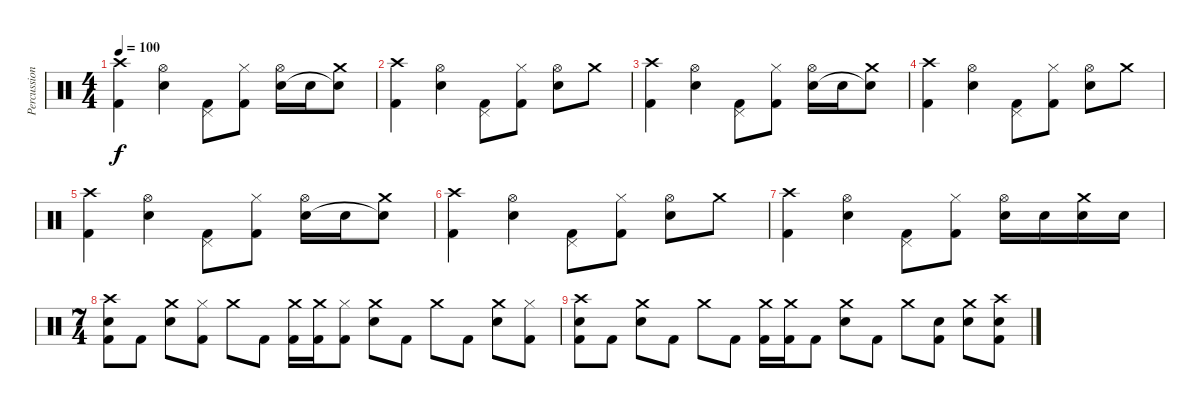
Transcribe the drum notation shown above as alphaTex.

\track ("Percussioni" "Percussion") {instrument percussion}
\staff {score}
\articulation defaults
\ts (4 4)
\tempo 100
\clef neutral
\ks c
("Crash high (hit)" "Kick (hit) 2").4{dy f} ("Hi-Hat (open)" "Snare (hit) 2").4 ("Pedal Hi-Hat (hit)" "Kick (hit) 2").8 ("Hi-Hat (closed)" "Kick (hit) 2").8 ("Hi-Hat (open)" "Snare (hit) 2").16 "Snare (hit) 2".16 ("Crash medium (hit)" "Snare (hit)"{t}).8 |
("Crash high (hit)" "Kick (hit) 2").4 ("Hi-Hat (open)" "Snare (hit) 2").4 ("Pedal Hi-Hat (hit)" "Kick (hit) 2").8 ("Hi-Hat (closed)" "Kick (hit) 2").8 ("Hi-Hat (open)" "Snare (hit) 2").8 "Crash medium (hit)".8 |
("Crash high (hit)" "Kick (hit) 2").4 ("Hi-Hat (open)" "Snare (hit) 2").4 ("Pedal Hi-Hat (hit)" "Kick (hit) 2").8 ("Hi-Hat (closed)" "Kick (hit) 2").8 ("Hi-Hat (open)" "Snare (hit) 2").16 "Snare (hit) 2".16 ("Crash medium (hit)" "Snare (hit)"{t}).8 |
("Crash high (hit)" "Kick (hit) 2").4 ("Hi-Hat (open)" "Snare (hit) 2").4 ("Pedal Hi-Hat (hit)" "Kick (hit) 2").8 ("Hi-Hat (closed)" "Kick (hit) 2").8 ("Hi-Hat (open)" "Snare (hit) 2").8 "Crash medium (hit)".8 |
("Crash high (hit)" "Kick (hit) 2").4 ("Hi-Hat (open)" "Snare (hit) 2").4 ("Pedal Hi-Hat (hit)" "Kick (hit) 2").8 ("Hi-Hat (closed)" "Kick (hit) 2").8 ("Hi-Hat (open)" "Snare (hit) 2").16 "Snare (hit) 2".16 ("Crash medium (hit)" "Snare (hit)"{t}).8 |
("Crash high (hit)" "Kick (hit) 2").4 ("Hi-Hat (open)" "Snare (hit) 2").4 ("Pedal Hi-Hat (hit)" "Kick (hit) 2").8 ("Hi-Hat (closed)" "Kick (hit) 2").8 ("Hi-Hat (open)" "Snare (hit) 2").8 "Crash medium (hit)".8 |
("Crash high (hit)" "Kick (hit) 2").4 ("Hi-Hat (open)" "Snare (hit) 2").4 ("Pedal Hi-Hat (hit)" "Kick (hit) 2").8 ("Hi-Hat (closed)" "Kick (hit) 2").8 ("Hi-Hat (open)" "Snare (hit) 2").16 "Snare (hit) 2".16 ("Crash medium (hit)" "Snare (hit) 2").16 "Snare (hit) 2".16 |
\ts (7 4)
("Crash high (hit)" "Snare (hit) 2" "Kick (hit) 2").8 "Kick (hit) 2".8 ("Crash medium (hit)" "Snare (hit) 2").8 ("Hi-Hat (closed)" "Kick (hit) 2").8 "Crash medium (hit)".8 "Kick (hit) 2".8 ("Crash medium (hit)" "Kick (hit) 2").16 ("Crash medium (hit)" "Kick (hit) 2").16 ("Hi-Hat (closed)" "Kick (hit) 2").8 ("Crash medium (hit)" "Snare (hit) 2").8 "Kick (hit) 2".8 "Crash medium (hit)".8 "Kick (hit) 2".8 ("Crash medium (hit)" "Snare (hit) 2").8 ("Hi-Hat (closed)" "Kick (hit) 2").8 |
("Crash high (hit)" "Snare (hit) 2" "Kick (hit) 2").8 "Kick (hit) 2".8 ("Crash medium (hit)" "Snare (hit) 2").8 "Kick (hit) 2".8 "Crash medium (hit)".8 "Kick (hit) 2".8 ("Crash medium (hit)" "Kick (hit) 2").16 ("Crash medium (hit)" "Kick (hit) 2").16 "Kick (hit) 2".8 ("Crash medium (hit)" "Snare (hit) 2").8 "Kick (hit) 2".8 "Crash medium (hit)".8 ("Snare (hit) 2" "Kick (hit) 2").8 ("Crash medium (hit)" "Snare (hit) 2").8 ("Crash high (hit)" "Snare (hit) 2" "Kick (hit) 2").8
